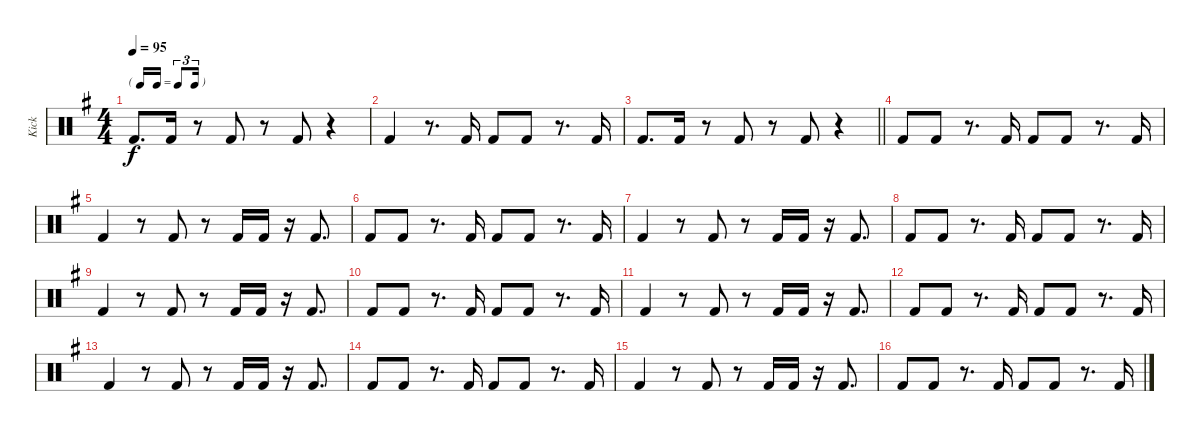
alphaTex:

\track ("Kick" "Kick") {instrument percussion}
\staff {score}
\articulation defaults
\ts (4 4)
\tf triplet16th
\tempo 95
\clef neutral
\ks eminor "Kick (hit) 2".8{d dy f} "Kick (hit) 2".16
r.8 "Kick (hit) 2".8 r.8 "Kick (hit) 2".8 r.4 |
"Kick (hit) 2".4 r.8{d} "Kick (hit) 2".16 "Kick (hit) 2".8 "Kick (hit) 2".8 r.8{d} "Kick (hit) 2".16 |
\barLineRight lightlight "Kick (hit) 2".8{d} "Kick (hit) 2".16
r.8 "Kick (hit) 2".8 r.8 "Kick (hit) 2".8 r.4 |
"Kick (hit) 2".8 "Kick (hit) 2".8 r.8{d} "Kick (hit) 2".16 "Kick (hit) 2".8 "Kick (hit) 2".8 r.8{d} "Kick (hit) 2".16 |
"Kick (hit) 2".4 r.8 "Kick (hit) 2".8 r.8 "Kick (hit) 2".16 "Kick (hit) 2".16 r.16 "Kick (hit) 2".8{d} |
"Kick (hit) 2".8 "Kick (hit) 2".8 r.8{d} "Kick (hit) 2".16 "Kick (hit) 2".8 "Kick (hit) 2".8 r.8{d} "Kick (hit) 2".16 |
"Kick (hit) 2".4 r.8 "Kick (hit) 2".8 r.8 "Kick (hit) 2".16 "Kick (hit) 2".16 r.16 "Kick (hit) 2".8{d} |
"Kick (hit) 2".8 "Kick (hit) 2".8 r.8{d} "Kick (hit) 2".16 "Kick (hit) 2".8 "Kick (hit) 2".8 r.8{d} "Kick (hit) 2".16 |
"Kick (hit) 2".4 r.8 "Kick (hit) 2".8 r.8 "Kick (hit) 2".16 "Kick (hit) 2".16 r.16 "Kick (hit) 2".8{d} |
"Kick (hit) 2".8 "Kick (hit) 2".8 r.8{d} "Kick (hit) 2".16 "Kick (hit) 2".8 "Kick (hit) 2".8 r.8{d} "Kick (hit) 2".16 |
"Kick (hit) 2".4 r.8 "Kick (hit) 2".8 r.8 "Kick (hit) 2".16 "Kick (hit) 2".16 r.16 "Kick (hit) 2".8{d} |
"Kick (hit) 2".8 "Kick (hit) 2".8 r.8{d} "Kick (hit) 2".16 "Kick (hit) 2".8 "Kick (hit) 2".8 r.8{d} "Kick (hit) 2".16 |
"Kick (hit) 2".4 r.8 "Kick (hit) 2".8 r.8 "Kick (hit) 2".16 "Kick (hit) 2".16 r.16 "Kick (hit) 2".8{d} |
"Kick (hit) 2".8 "Kick (hit) 2".8 r.8{d} "Kick (hit) 2".16 "Kick (hit) 2".8 "Kick (hit) 2".8 r.8{d} "Kick (hit) 2".16 |
"Kick (hit) 2".4 r.8 "Kick (hit) 2".8 r.8 "Kick (hit) 2".16 "Kick (hit) 2".16 r.16 "Kick (hit) 2".8{d} |
"Kick (hit) 2".8 "Kick (hit) 2".8 r.8{d} "Kick (hit) 2".16 "Kick (hit) 2".8 "Kick (hit) 2".8 r.8{d} "Kick (hit) 2".16
